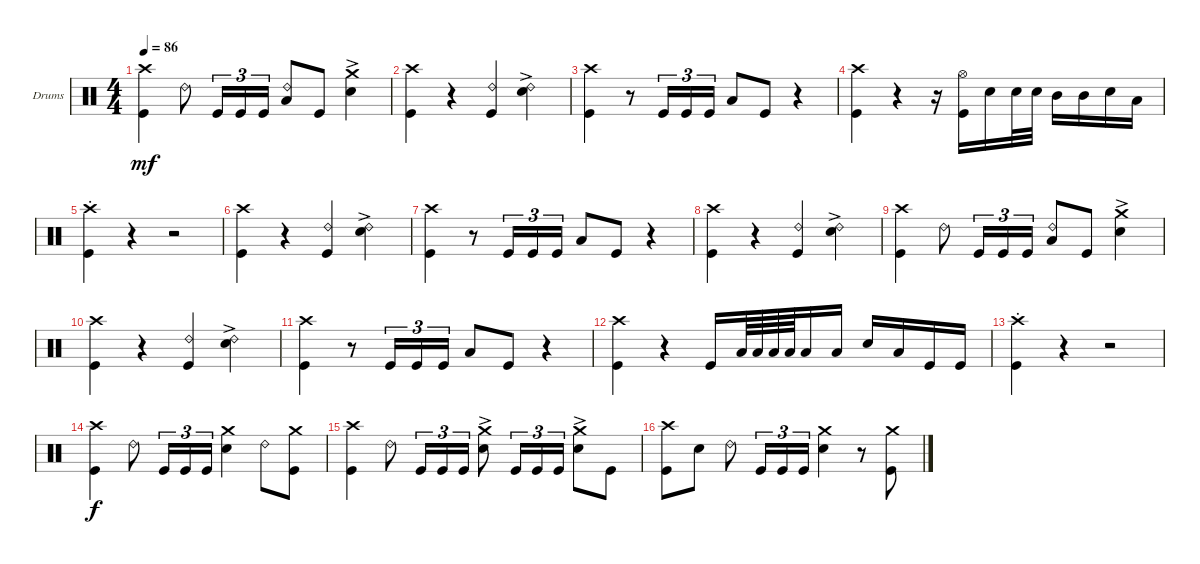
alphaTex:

\defaultSystemsLayout 4
\bracketExtendMode groupsimilarinstruments
\firstSystemTrackNameOrientation horizontal
\otherSystemsTrackNameOrientation horizontal
\track ("Drumkit" "Drums") {instrument percussion}
\staff {score}
\articulation defaults
\ts (4 4)
\tempo 86
\clef neutral
\scale
0.461883
\ks c
("Kick (hit)" "Crash high (hit)").4{dy mf} "Ride (bell) 2".8 "Kick (hit)".16{tu (3 2)} "Kick (hit)".16{tu (3 2)} "Kick (hit)".16{tu (3 2)} ("Low Tom (hit)" "Ride (bell) 2").8 "Kick (hit)".8 ("Crash medium (hit)" "Snare (hit) 2"{ac}).4 |
\scale
0.269058 ("Kick (hit)" "Crash high (hit)").4 r.4 ("Ride (bell) 2" "Kick (hit)").4 ("Snare (hit) 2"{ac} "Ride (bell) 2").4 |
\scale
0.392381 ("Kick (hit)" "Crash high (hit)").4 r.8 "Kick (hit)".16{tu (3 2)} "Kick (hit)".16{tu (3 2)} "Kick (hit)".16{tu (3 2)} "Low Tom (hit)".8 "Kick (hit)".8 r.4 |
\scale
0.405714 ("Kick (hit)" "Crash high (hit)").4 r.4 r.16 ("Kick (hit)" "Hi-Hat (open)").16 "Snare (hit) 2".16 "Snare (hit) 2".32 "Snare (hit) 2".32 "Mid Tom (hit)".16 "Mid Tom (hit)".16 "Snare (hit) 2".16 "Low Tom (hit)".16 |
\scale
0.201905 ("Kick (hit)" "Crash high (hit)"{st}).4 r.4 r.2 |
\scale
0.269058 ("Kick (hit)" "Crash high (hit)").4 r.4 ("Ride (bell) 2" "Kick (hit)").4 ("Snare (hit) 2"{ac} "Ride (bell) 2").4 |
\scale
0.461883 ("Kick (hit)" "Crash high (hit)").4 r.8 "Kick (hit)".16{tu (3 2)} "Kick (hit)".16{tu (3 2)} "Kick (hit)".16{tu (3 2)} "Low Tom (hit)".8 "Kick (hit)".8 r.4 |
\scale
0.269058 ("Kick (hit)" "Crash high (hit)").4 r.4 ("Ride (bell) 2" "Kick (hit)").4 ("Snare (hit) 2"{ac} "Ride (bell) 2").4 |
\scale
0.387218 ("Kick (hit)" "Crash high (hit)").4 "Ride (bell) 2".8 "Kick (hit)".16{tu (3 2)} "Kick (hit)".16{tu (3 2)} "Kick (hit)".16{tu (3 2)} ("Low Tom (hit)" "Ride (bell) 2").8 "Kick (hit)".8 ("Crash medium (hit)" "Snare (hit) 2"{ac}).4 |
\scale
0.225564 ("Kick (hit)" "Crash high (hit)").4 r.4 ("Ride (bell) 2" "Kick (hit)").4 ("Snare (hit) 2"{ac} "Ride (bell) 2").4 |
\scale
0.387218 ("Kick (hit)" "Crash high (hit)").4 r.8 "Kick (hit)".16{tu (3 2)} "Kick (hit)".16{tu (3 2)} "Kick (hit)".16{tu (3 2)} "Low Tom (hit)".8 "Kick (hit)".8 r.4 |
\scale
0.498392 ("Kick (hit)" "Crash high (hit)").4 r.4 "Kick (hit)".16 "Low Tom (hit)".64 "Low Tom (hit)".64 "Low Tom (hit)".64 "Low Tom (hit)".64 "Low Tom (hit)".16 "Low Tom (hit)".16 "Snare (hit) 2".16 "Low Tom (hit)".16 "Kick (hit)".16 "Kick (hit)".16 |
\scale
0.170418 ("Kick (hit)" "Crash high (hit)"{st}).4 r.4 r.2 |
\scale
0.33119 ("Kick (hit)" "Crash high (hit)").4{dy f} "Ride (bell) 2".8 "Kick (hit)".16{tu (3 2)} "Kick (hit)".16{tu (3 2)} "Kick (hit)".16{tu (3 2)} ("Snare (hit) 2" "Crash medium (hit)").4 "Ride (bell) 2".8 ("Kick (hit)" "Crash medium (hit)").8 |
\scale
0.351032 ("Kick (hit)" "Crash high (hit)").4 "Ride (bell) 2".8 "Kick (hit)".16{tu (3 2)} "Kick (hit)".16{tu (3 2)} "Kick (hit)".16{tu (3 2)} ("Snare (hit) 2"{ac} "Crash medium (hit)").8 "Kick (hit)".16{tu (3 2)} "Kick (hit)".16{tu (3 2)} "Kick (hit)".16{tu (3 2)} ("Snare (hit) 2"{ac} "Crash medium (hit)").8 "Kick (hit)".8 |
\scale
0.324484 ("Kick (hit)" "Crash high (hit)").8 "Snare (hit) 2".8 "Ride (bell) 2".8 "Kick (hit)".16{tu (3 2)} "Kick (hit)".16{tu (3 2)} "Kick (hit)".16{tu (3 2)} ("Snare (hit) 2" "Crash medium (hit)").4 r.8 ("Kick (hit)" "Crash medium (hit)").8
